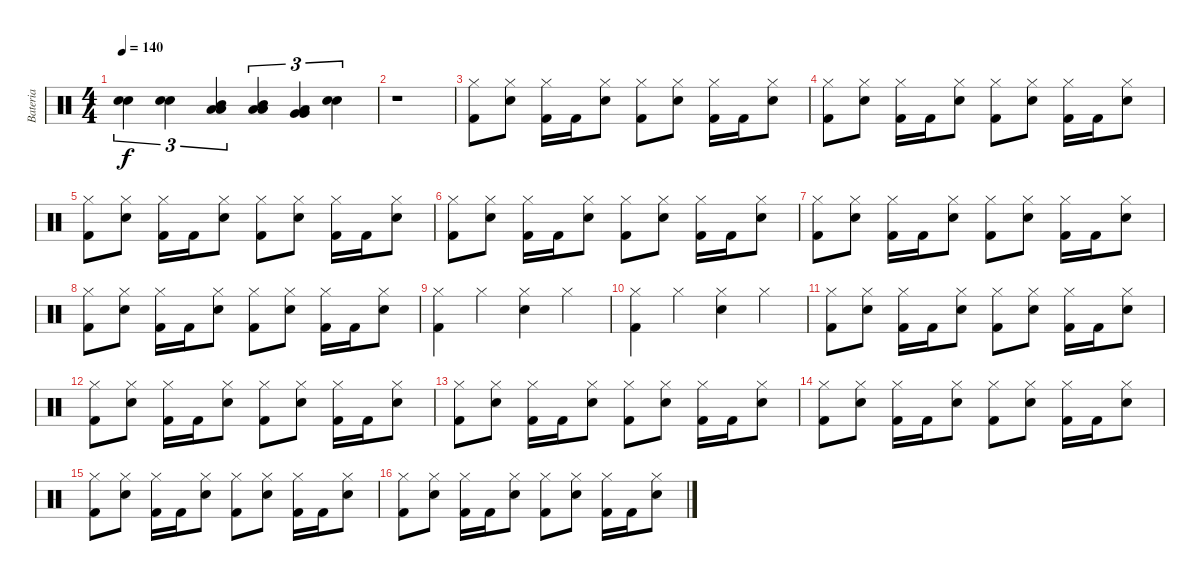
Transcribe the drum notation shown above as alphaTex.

\track ("Bateria" "Bateria") {instrument percussion}
\staff {score}
\articulation defaults
\ts (4 4)
\tempo 140
\clef neutral
\ks c
("Electric Snare (hit)" "Electric Snare (hit)").4{tu (3 2) dy f} ("Electric Snare (hit)" "Electric Snare (hit)").4{tu (3 2)} ("Low Tom (hit)" "Low Tom (hit)" "Mid Tom (hit)").4{tu (3 2)} ("Low Tom (hit)" "Low Tom (hit)" "Mid Tom (hit)").4{tu (3 2)} ("Very Low Tom (hit)" "Very Low Tom (hit)" "Low Floor Tom (hit)").4{tu (3 2)} ("Electric Snare (hit)" "Electric Snare (hit)").4{tu (3 2)} |
r.1 |
("Kick (hit) 2" "Hi-Hat (closed)").8 ("Electric Snare (hit)" "Hi-Hat (closed)").8 ("Kick (hit) 2" "Hi-Hat (closed)").16 "Kick (hit) 2".16 ("Electric Snare (hit)" "Hi-Hat (closed)").8 ("Kick (hit) 2" "Hi-Hat (closed)").8 ("Electric Snare (hit)" "Hi-Hat (closed)").8 ("Kick (hit) 2" "Hi-Hat (closed)").16 "Kick (hit) 2".16 ("Electric Snare (hit)" "Hi-Hat (closed)").8 |
("Kick (hit) 2" "Hi-Hat (closed)").8 ("Electric Snare (hit)" "Hi-Hat (closed)").8 ("Kick (hit) 2" "Hi-Hat (closed)").16 "Kick (hit) 2".16 ("Electric Snare (hit)" "Hi-Hat (closed)").8 ("Kick (hit) 2" "Hi-Hat (closed)").8 ("Electric Snare (hit)" "Hi-Hat (closed)").8 ("Kick (hit) 2" "Hi-Hat (closed)").16 "Kick (hit) 2".16 ("Electric Snare (hit)" "Hi-Hat (closed)").8 |
("Kick (hit) 2" "Hi-Hat (closed)").8 ("Electric Snare (hit)" "Hi-Hat (closed)").8 ("Kick (hit) 2" "Hi-Hat (closed)").16 "Kick (hit) 2".16 ("Electric Snare (hit)" "Hi-Hat (closed)").8 ("Kick (hit) 2" "Hi-Hat (closed)").8 ("Electric Snare (hit)" "Hi-Hat (closed)").8 ("Kick (hit) 2" "Hi-Hat (closed)").16 "Kick (hit) 2".16 ("Electric Snare (hit)" "Hi-Hat (closed)").8 |
("Kick (hit) 2" "Hi-Hat (closed)").8 ("Electric Snare (hit)" "Hi-Hat (closed)").8 ("Kick (hit) 2" "Hi-Hat (closed)").16 "Kick (hit) 2".16 ("Electric Snare (hit)" "Hi-Hat (closed)").8 ("Kick (hit) 2" "Hi-Hat (closed)").8 ("Electric Snare (hit)" "Hi-Hat (closed)").8 ("Kick (hit) 2" "Hi-Hat (closed)").16 "Kick (hit) 2".16 ("Electric Snare (hit)" "Hi-Hat (closed)").8 |
("Kick (hit) 2" "Hi-Hat (closed)").8 ("Electric Snare (hit)" "Hi-Hat (closed)").8 ("Kick (hit) 2" "Hi-Hat (closed)").16 "Kick (hit) 2".16 ("Electric Snare (hit)" "Hi-Hat (closed)").8 ("Kick (hit) 2" "Hi-Hat (closed)").8 ("Electric Snare (hit)" "Hi-Hat (closed)").8 ("Kick (hit) 2" "Hi-Hat (closed)").16 "Kick (hit) 2".16 ("Electric Snare (hit)" "Hi-Hat (closed)").8 |
("Kick (hit) 2" "Hi-Hat (closed)").8 ("Electric Snare (hit)" "Hi-Hat (closed)").8 ("Kick (hit) 2" "Hi-Hat (closed)").16 "Kick (hit) 2".16 ("Electric Snare (hit)" "Hi-Hat (closed)").8 ("Kick (hit) 2" "Hi-Hat (closed)").8 ("Electric Snare (hit)" "Hi-Hat (closed)").8 ("Kick (hit) 2" "Hi-Hat (closed)").16 "Kick (hit) 2".16 ("Electric Snare (hit)" "Hi-Hat (closed)").8 |
("Hi-Hat (closed)" "Kick (hit) 2").4 "Hi-Hat (closed)".4 ("Hi-Hat (closed)" "Electric Snare (hit)").4 "Hi-Hat (closed)".4 |
("Hi-Hat (closed)" "Kick (hit) 2").4 "Hi-Hat (closed)".4 ("Hi-Hat (closed)" "Electric Snare (hit)").4 "Hi-Hat (closed)".4 |
("Kick (hit) 2" "Hi-Hat (closed)").8 ("Electric Snare (hit)" "Hi-Hat (closed)").8 ("Kick (hit) 2" "Hi-Hat (closed)").16 "Kick (hit) 2".16 ("Electric Snare (hit)" "Hi-Hat (closed)").8 ("Kick (hit) 2" "Hi-Hat (closed)").8 ("Electric Snare (hit)" "Hi-Hat (closed)").8 ("Kick (hit) 2" "Hi-Hat (closed)").16 "Kick (hit) 2".16 ("Electric Snare (hit)" "Hi-Hat (closed)").8 |
("Kick (hit) 2" "Hi-Hat (closed)").8 ("Electric Snare (hit)" "Hi-Hat (closed)").8 ("Kick (hit) 2" "Hi-Hat (closed)").16 "Kick (hit) 2".16 ("Electric Snare (hit)" "Hi-Hat (closed)").8 ("Kick (hit) 2" "Hi-Hat (closed)").8 ("Electric Snare (hit)" "Hi-Hat (closed)").8 ("Kick (hit) 2" "Hi-Hat (closed)").16 "Kick (hit) 2".16 ("Electric Snare (hit)" "Hi-Hat (closed)").8 |
("Kick (hit) 2" "Hi-Hat (closed)").8 ("Electric Snare (hit)" "Hi-Hat (closed)").8 ("Kick (hit) 2" "Hi-Hat (closed)").16 "Kick (hit) 2".16 ("Electric Snare (hit)" "Hi-Hat (closed)").8 ("Kick (hit) 2" "Hi-Hat (closed)").8 ("Electric Snare (hit)" "Hi-Hat (closed)").8 ("Kick (hit) 2" "Hi-Hat (closed)").16 "Kick (hit) 2".16 ("Electric Snare (hit)" "Hi-Hat (closed)").8 |
("Kick (hit) 2" "Hi-Hat (closed)").8 ("Electric Snare (hit)" "Hi-Hat (closed)").8 ("Kick (hit) 2" "Hi-Hat (closed)").16 "Kick (hit) 2".16 ("Electric Snare (hit)" "Hi-Hat (closed)").8 ("Kick (hit) 2" "Hi-Hat (closed)").8 ("Electric Snare (hit)" "Hi-Hat (closed)").8 ("Kick (hit) 2" "Hi-Hat (closed)").16 "Kick (hit) 2".16 ("Electric Snare (hit)" "Hi-Hat (closed)").8 |
("Kick (hit) 2" "Hi-Hat (closed)").8 ("Electric Snare (hit)" "Hi-Hat (closed)").8 ("Kick (hit) 2" "Hi-Hat (closed)").16 "Kick (hit) 2".16 ("Electric Snare (hit)" "Hi-Hat (closed)").8 ("Kick (hit) 2" "Hi-Hat (closed)").8 ("Electric Snare (hit)" "Hi-Hat (closed)").8 ("Kick (hit) 2" "Hi-Hat (closed)").16 "Kick (hit) 2".16 ("Electric Snare (hit)" "Hi-Hat (closed)").8 |
("Kick (hit) 2" "Hi-Hat (closed)").8 ("Electric Snare (hit)" "Hi-Hat (closed)").8 ("Kick (hit) 2" "Hi-Hat (closed)").16 "Kick (hit) 2".16 ("Electric Snare (hit)" "Hi-Hat (closed)").8 ("Kick (hit) 2" "Hi-Hat (closed)").8 ("Electric Snare (hit)" "Hi-Hat (closed)").8 ("Kick (hit) 2" "Hi-Hat (closed)").16 "Kick (hit) 2".16 ("Electric Snare (hit)" "Hi-Hat (closed)").8
